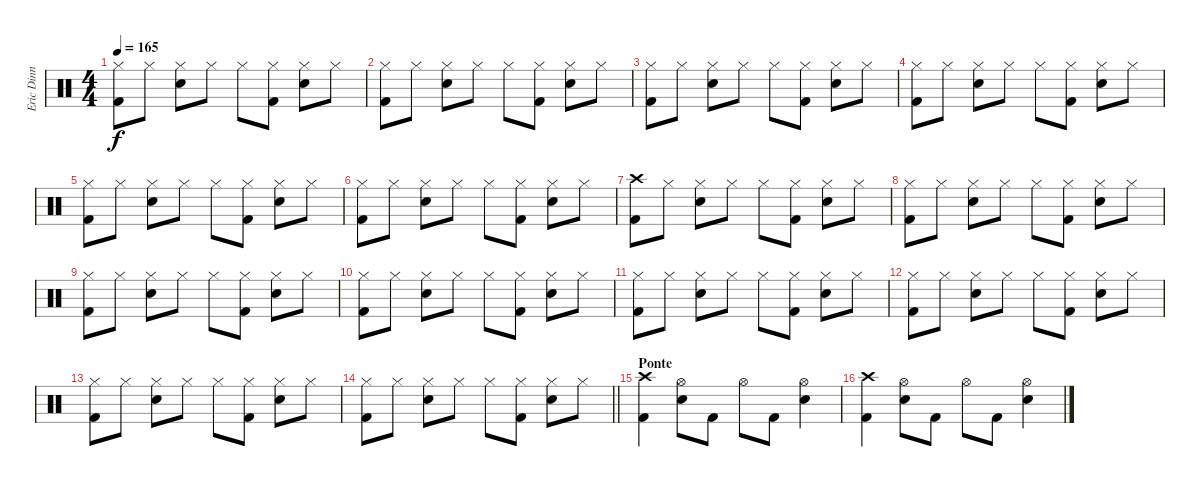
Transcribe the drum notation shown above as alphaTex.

\track ("Eric Dinn" "Eric Dinn") {instrument percussion}
\staff {score}
\articulation defaults
\ts (4 4)
\tempo 165
\clef neutral
\ks c
("Hi-Hat (closed)" "Kick (hit) 2").8{dy f} "Hi-Hat (closed)".8 ("Hi-Hat (closed)" "Snare (hit) 2").8 "Hi-Hat (closed)".8 "Hi-Hat (closed)".8 ("Hi-Hat (closed)" "Kick (hit) 2").8 ("Hi-Hat (closed)" "Snare (hit) 2").8 "Hi-Hat (closed)".8 |
("Hi-Hat (closed)" "Kick (hit) 2").8 "Hi-Hat (closed)".8 ("Hi-Hat (closed)" "Snare (hit) 2").8 "Hi-Hat (closed)".8 "Hi-Hat (closed)".8 ("Hi-Hat (closed)" "Kick (hit) 2").8 ("Hi-Hat (closed)" "Snare (hit) 2").8 "Hi-Hat (closed)".8 |
("Hi-Hat (closed)" "Kick (hit) 2").8 "Hi-Hat (closed)".8 ("Hi-Hat (closed)" "Snare (hit) 2").8 "Hi-Hat (closed)".8 "Hi-Hat (closed)".8 ("Hi-Hat (closed)" "Kick (hit) 2").8 ("Hi-Hat (closed)" "Snare (hit) 2").8 "Hi-Hat (closed)".8 |
("Hi-Hat (closed)" "Kick (hit) 2").8 "Hi-Hat (closed)".8 ("Hi-Hat (closed)" "Snare (hit) 2").8 "Hi-Hat (closed)".8 "Hi-Hat (closed)".8 ("Hi-Hat (closed)" "Kick (hit) 2").8 ("Hi-Hat (closed)" "Snare (hit) 2").8 "Hi-Hat (closed)".8 |
("Hi-Hat (closed)" "Kick (hit) 2").8 "Hi-Hat (closed)".8 ("Hi-Hat (closed)" "Snare (hit) 2").8 "Hi-Hat (closed)".8 "Hi-Hat (closed)".8 ("Hi-Hat (closed)" "Kick (hit) 2").8 ("Hi-Hat (closed)" "Snare (hit) 2").8 "Hi-Hat (closed)".8 |
("Hi-Hat (closed)" "Kick (hit) 2").8 "Hi-Hat (closed)".8 ("Hi-Hat (closed)" "Snare (hit) 2").8 "Hi-Hat (closed)".8 "Hi-Hat (closed)".8 ("Hi-Hat (closed)" "Kick (hit) 2").8 ("Hi-Hat (closed)" "Snare (hit) 2").8 "Hi-Hat (closed)".8 |
("Crash high (hit)" "Kick (hit) 2").8 "Hi-Hat (closed)".8 ("Hi-Hat (closed)" "Snare (hit) 2").8 "Hi-Hat (closed)".8 "Hi-Hat (closed)".8 ("Hi-Hat (closed)" "Kick (hit) 2").8 ("Hi-Hat (closed)" "Snare (hit) 2").8 "Hi-Hat (closed)".8 |
("Hi-Hat (closed)" "Kick (hit) 2").8 "Hi-Hat (closed)".8 ("Hi-Hat (closed)" "Snare (hit) 2").8 "Hi-Hat (closed)".8 "Hi-Hat (closed)".8 ("Hi-Hat (closed)" "Kick (hit) 2").8 ("Hi-Hat (closed)" "Snare (hit) 2").8 "Hi-Hat (closed)".8 |
("Hi-Hat (closed)" "Kick (hit) 2").8 "Hi-Hat (closed)".8 ("Hi-Hat (closed)" "Snare (hit) 2").8 "Hi-Hat (closed)".8 "Hi-Hat (closed)".8 ("Hi-Hat (closed)" "Kick (hit) 2").8 ("Hi-Hat (closed)" "Snare (hit) 2").8 "Hi-Hat (closed)".8 |
("Hi-Hat (closed)" "Kick (hit) 2").8 "Hi-Hat (closed)".8 ("Hi-Hat (closed)" "Snare (hit) 2").8 "Hi-Hat (closed)".8 "Hi-Hat (closed)".8 ("Hi-Hat (closed)" "Kick (hit) 2").8 ("Hi-Hat (closed)" "Snare (hit) 2").8 "Hi-Hat (closed)".8 |
("Hi-Hat (closed)" "Kick (hit) 2").8 "Hi-Hat (closed)".8 ("Hi-Hat (closed)" "Snare (hit) 2").8 "Hi-Hat (closed)".8 "Hi-Hat (closed)".8 ("Hi-Hat (closed)" "Kick (hit) 2").8 ("Hi-Hat (closed)" "Snare (hit) 2").8 "Hi-Hat (closed)".8 |
("Hi-Hat (closed)" "Kick (hit) 2").8 "Hi-Hat (closed)".8 ("Hi-Hat (closed)" "Snare (hit) 2").8 "Hi-Hat (closed)".8 "Hi-Hat (closed)".8 ("Hi-Hat (closed)" "Kick (hit) 2").8 ("Hi-Hat (closed)" "Snare (hit) 2").8 "Hi-Hat (closed)".8 |
("Hi-Hat (closed)" "Kick (hit) 2").8 "Hi-Hat (closed)".8 ("Hi-Hat (closed)" "Snare (hit) 2").8 "Hi-Hat (closed)".8 "Hi-Hat (closed)".8 ("Hi-Hat (closed)" "Kick (hit) 2").8 ("Hi-Hat (closed)" "Snare (hit) 2").8 "Hi-Hat (closed)".8 |
\barLineRight lightlight
("Hi-Hat (closed)" "Kick (hit) 2").8 "Hi-Hat (closed)".8 ("Hi-Hat (closed)" "Snare (hit) 2").8 "Hi-Hat (closed)".8 "Hi-Hat (closed)".8 ("Hi-Hat (closed)" "Kick (hit) 2").8 ("Hi-Hat (closed)" "Snare (hit) 2").8 "Hi-Hat (closed)".8 |
\section ("" "Ponte")
("Crash high (hit)" "Kick (hit) 2").4 ("Hi-Hat (open)" "Snare (hit) 2").8 "Kick (hit) 2".8 "Hi-Hat (open)".8 "Kick (hit) 2".8 ("Hi-Hat (open)" "Snare (hit) 2").4 |
("Crash high (hit)" "Kick (hit) 2").4 ("Hi-Hat (open)" "Snare (hit) 2").8 "Kick (hit) 2".8 "Hi-Hat (open)".8 "Kick (hit) 2".8 ("Hi-Hat (open)" "Snare (hit) 2").4
